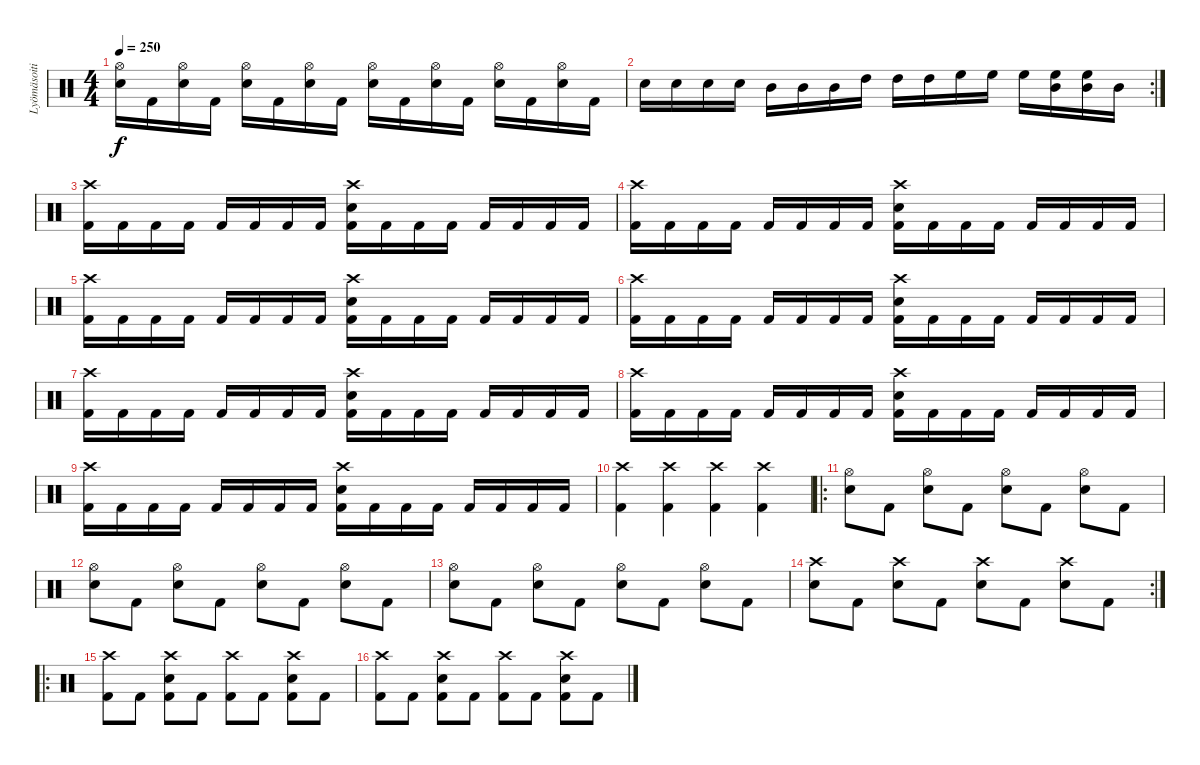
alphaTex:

\track ("Lyömäsoitin" "Lyömäsoiti") {instrument percussion}
\staff {score}
\articulation defaults
\ts (4 4)
\tempo 250
\clef neutral
\ks c
("Hi-Hat (open)" "Electric Snare (hit)").16{dy f} "Kick (hit) 2".16 ("Hi-Hat (open)" "Electric Snare (hit)").16 "Kick (hit) 2".16 ("Hi-Hat (open)" "Electric Snare (hit)").16 "Kick (hit) 2".16 ("Hi-Hat (open)" "Electric Snare (hit)").16 "Kick (hit) 2".16 ("Hi-Hat (open)" "Electric Snare (hit)").16 "Kick (hit) 2".16 ("Hi-Hat (open)" "Electric Snare (hit)").16 "Kick (hit) 2".16 ("Hi-Hat (open)" "Electric Snare (hit)").16 "Kick (hit) 2".16 ("Hi-Hat (open)" "Electric Snare (hit)").16 "Kick (hit) 2".16 |
\rc 2 "Electric Snare (hit)".16 "Electric Snare (hit)".16 "Electric Snare (hit)".16 "Electric Snare (hit)".16 "Mid Tom (hit)".16 "Mid Tom (hit)".16 "Mid Tom (hit)".16 "High Tom (hit)".16 "High Tom (hit)".16 "High Tom (hit)".16 "High Floor Tom (hit)".16 "High Floor Tom (hit)".16 "High Floor Tom (hit)".16
("Mid Tom (hit)" "High Floor Tom (hit)").16 ("Mid Tom (hit)" "High Floor Tom (hit)").16 "Mid Tom (hit)".16 |
("Crash high (hit)" "Kick (hit) 2").16 "Kick (hit) 2".16 "Kick (hit) 2".16 "Kick (hit) 2".16 "Kick (hit) 2".16 "Kick (hit) 2".16 "Kick (hit) 2".16 "Kick (hit) 2".16 ("Crash high (hit)" "Electric Snare (hit)" "Kick (hit) 2").16 "Kick (hit) 2".16 "Kick (hit) 2".16 "Kick (hit) 2".16 "Kick (hit) 2".16 "Kick (hit) 2".16 "Kick (hit) 2".16 "Kick (hit) 2".16 |
("Crash high (hit)" "Kick (hit) 2").16 "Kick (hit) 2".16 "Kick (hit) 2".16 "Kick (hit) 2".16 "Kick (hit) 2".16 "Kick (hit) 2".16 "Kick (hit) 2".16 "Kick (hit) 2".16 ("Crash high (hit)" "Electric Snare (hit)" "Kick (hit) 2").16 "Kick (hit) 2".16 "Kick (hit) 2".16 "Kick (hit) 2".16 "Kick (hit) 2".16 "Kick (hit) 2".16 "Kick (hit) 2".16 "Kick (hit) 2".16 |
("Crash high (hit)" "Kick (hit) 2").16 "Kick (hit) 2".16 "Kick (hit) 2".16 "Kick (hit) 2".16 "Kick (hit) 2".16 "Kick (hit) 2".16 "Kick (hit) 2".16 "Kick (hit) 2".16 ("Crash high (hit)" "Electric Snare (hit)" "Kick (hit) 2").16 "Kick (hit) 2".16 "Kick (hit) 2".16 "Kick (hit) 2".16 "Kick (hit) 2".16 "Kick (hit) 2".16 "Kick (hit) 2".16 "Kick (hit) 2".16 |
("Crash high (hit)" "Kick (hit) 2").16 "Kick (hit) 2".16 "Kick (hit) 2".16 "Kick (hit) 2".16 "Kick (hit) 2".16 "Kick (hit) 2".16 "Kick (hit) 2".16 "Kick (hit) 2".16 ("Crash high (hit)" "Electric Snare (hit)" "Kick (hit) 2").16 "Kick (hit) 2".16 "Kick (hit) 2".16 "Kick (hit) 2".16 "Kick (hit) 2".16 "Kick (hit) 2".16 "Kick (hit) 2".16 "Kick (hit) 2".16 |
("Crash high (hit)" "Kick (hit) 2").16 "Kick (hit) 2".16 "Kick (hit) 2".16 "Kick (hit) 2".16 "Kick (hit) 2".16 "Kick (hit) 2".16 "Kick (hit) 2".16 "Kick (hit) 2".16 ("Crash high (hit)" "Electric Snare (hit)" "Kick (hit) 2").16 "Kick (hit) 2".16 "Kick (hit) 2".16 "Kick (hit) 2".16 "Kick (hit) 2".16 "Kick (hit) 2".16 "Kick (hit) 2".16 "Kick (hit) 2".16 |
("Crash high (hit)" "Kick (hit) 2").16 "Kick (hit) 2".16 "Kick (hit) 2".16 "Kick (hit) 2".16 "Kick (hit) 2".16 "Kick (hit) 2".16 "Kick (hit) 2".16 "Kick (hit) 2".16 ("Crash high (hit)" "Electric Snare (hit)" "Kick (hit) 2").16 "Kick (hit) 2".16 "Kick (hit) 2".16 "Kick (hit) 2".16 "Kick (hit) 2".16 "Kick (hit) 2".16 "Kick (hit) 2".16 "Kick (hit) 2".16 |
("Crash high (hit)" "Kick (hit) 2").16 "Kick (hit) 2".16 "Kick (hit) 2".16 "Kick (hit) 2".16 "Kick (hit) 2".16 "Kick (hit) 2".16 "Kick (hit) 2".16 "Kick (hit) 2".16 ("Crash high (hit)" "Electric Snare (hit)" "Kick (hit) 2").16 "Kick (hit) 2".16 "Kick (hit) 2".16 "Kick (hit) 2".16 "Kick (hit) 2".16 "Kick (hit) 2".16 "Kick (hit) 2".16 "Kick (hit) 2".16 |
("Crash high (hit)" "Kick (hit) 2").4 ("Crash high (hit)" "Kick (hit) 2").4 ("Crash high (hit)" "Kick (hit) 2").4 ("Crash high (hit)" "Kick (hit) 2").4 |
\ro
("Hi-Hat (open)" "Electric Snare (hit)").8 "Kick (hit) 2".8 ("Hi-Hat (open)" "Electric Snare (hit)").8 "Kick (hit) 2".8 ("Hi-Hat (open)" "Electric Snare (hit)").8 "Kick (hit) 2".8 ("Hi-Hat (open)" "Electric Snare (hit)").8 "Kick (hit) 2".8 |
("Hi-Hat (open)" "Electric Snare (hit)").8 "Kick (hit) 2".8 ("Hi-Hat (open)" "Electric Snare (hit)").8 "Kick (hit) 2".8 ("Hi-Hat (open)" "Electric Snare (hit)").8 "Kick (hit) 2".8 ("Hi-Hat (open)" "Electric Snare (hit)").8 "Kick (hit) 2".8 |
("Hi-Hat (open)" "Electric Snare (hit)").8 "Kick (hit) 2".8 ("Hi-Hat (open)" "Electric Snare (hit)").8 "Kick (hit) 2".8 ("Hi-Hat (open)" "Electric Snare (hit)").8 "Kick (hit) 2".8 ("Hi-Hat (open)" "Electric Snare (hit)").8 "Kick (hit) 2".8 |
\rc 2
("Crash high (hit)" "Electric Snare (hit)").8 "Kick (hit) 2".8 ("Crash high (hit)" "Electric Snare (hit)").8 "Kick (hit) 2".8 ("Crash high (hit)" "Electric Snare (hit)").8 "Kick (hit) 2".8 ("Crash high (hit)" "Electric Snare (hit)").8 "Kick (hit) 2".8 |
\ro
("Crash high (hit)" "Kick (hit) 2").8 "Kick (hit) 2".8 ("Crash high (hit)" "Electric Snare (hit)" "Kick (hit) 2").8 "Kick (hit) 2".8 ("Crash high (hit)" "Kick (hit) 2").8 "Kick (hit) 2".8 ("Crash high (hit)" "Electric Snare (hit)" "Kick (hit) 2").8 "Kick (hit) 2".8 |
("Crash high (hit)" "Kick (hit) 2").8 "Kick (hit) 2".8 ("Crash high (hit)" "Electric Snare (hit)" "Kick (hit) 2").8 "Kick (hit) 2".8 ("Crash high (hit)" "Kick (hit) 2").8 "Kick (hit) 2".8 ("Crash high (hit)" "Electric Snare (hit)" "Kick (hit) 2").8 "Kick (hit) 2".8
